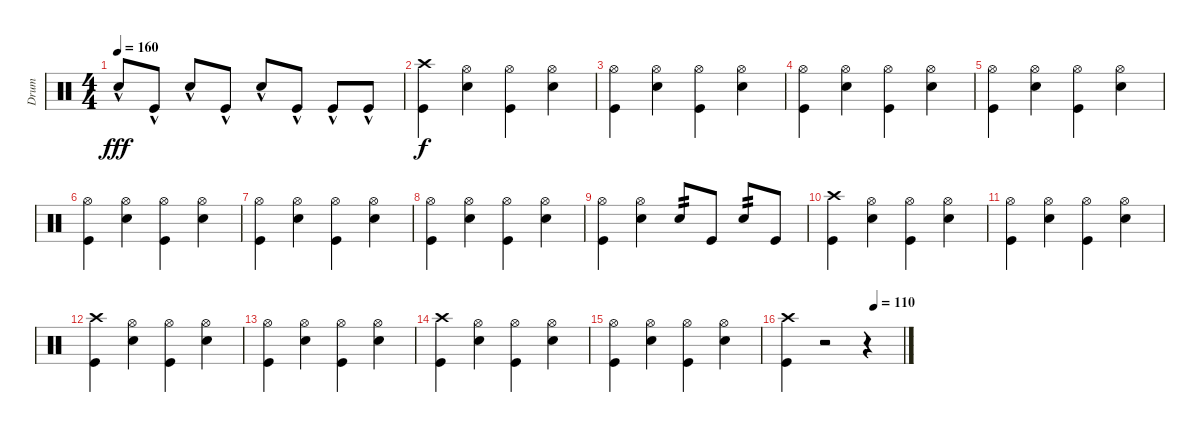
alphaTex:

\track ("Drum" "Drum") {instrument percussion}
\staff {score}
\articulation defaults
\ts (4 4)
\tempo 160
\clef neutral
\ks c "Snare (hit) 2"{hac}.8{dy fff} "Kick (hit)"{hac}.8 "Snare (hit) 2"{hac}.8 "Kick (hit)"{hac}.8 "Snare (hit) 2"{hac}.8 "Kick (hit)"{hac}.8 "Kick (hit)"{hac}.8 "Kick (hit)"{hac}.8
|
("Crash high (hit)" "Kick (hit)").4{dy f} ("Hi-Hat (open)" "Snare (hit) 2").4 ("Hi-Hat (open)" "Kick (hit)").4 ("Hi-Hat (open)" "Snare (hit) 2").4 |
("Hi-Hat (open)" "Kick (hit)").4 ("Hi-Hat (open)" "Snare (hit) 2").4 ("Hi-Hat (open)" "Kick (hit)").4 ("Hi-Hat (open)" "Snare (hit) 2").4 |
("Hi-Hat (open)" "Kick (hit)").4 ("Hi-Hat (open)" "Snare (hit) 2").4 ("Hi-Hat (open)" "Kick (hit)").4 ("Hi-Hat (open)" "Snare (hit) 2").4 |
("Hi-Hat (open)" "Kick (hit)").4 ("Hi-Hat (open)" "Snare (hit) 2").4 ("Hi-Hat (open)" "Kick (hit)").4 ("Hi-Hat (open)" "Snare (hit) 2").4 |
("Hi-Hat (open)" "Kick (hit)").4 ("Hi-Hat (open)" "Snare (hit) 2").4 ("Hi-Hat (open)" "Kick (hit)").4 ("Hi-Hat (open)" "Snare (hit) 2").4 |
("Hi-Hat (open)" "Kick (hit)").4 ("Hi-Hat (open)" "Snare (hit) 2").4 ("Hi-Hat (open)" "Kick (hit)").4 ("Hi-Hat (open)" "Snare (hit) 2").4 |
("Hi-Hat (open)" "Kick (hit)").4 ("Hi-Hat (open)" "Snare (hit) 2").4 ("Hi-Hat (open)" "Kick (hit)").4 ("Hi-Hat (open)" "Snare (hit) 2").4 |
("Hi-Hat (open)" "Kick (hit)").4 ("Hi-Hat (open)" "Snare (hit) 2").4 "Snare (hit) 2".8{tp 2} "Kick (hit)".8 "Snare (hit) 2".8{tp 2} "Kick (hit)".8 |
("Crash high (hit)" "Kick (hit)").4 ("Hi-Hat (open)" "Snare (hit) 2").4 ("Hi-Hat (open)" "Kick (hit)").4 ("Hi-Hat (open)" "Snare (hit) 2").4 |
("Hi-Hat (open)" "Kick (hit)").4 ("Hi-Hat (open)" "Snare (hit) 2").4 ("Hi-Hat (open)" "Kick (hit)").4 ("Hi-Hat (open)" "Snare (hit) 2").4 |
("Crash high (hit)" "Kick (hit)").4 ("Hi-Hat (open)" "Snare (hit) 2").4 ("Hi-Hat (open)" "Kick (hit)").4 ("Hi-Hat (open)" "Snare (hit) 2").4 |
("Hi-Hat (open)" "Kick (hit)").4 ("Hi-Hat (open)" "Snare (hit) 2").4 ("Hi-Hat (open)" "Kick (hit)").4 ("Hi-Hat (open)" "Snare (hit) 2").4 |
("Crash high (hit)" "Kick (hit)").4 ("Hi-Hat (open)" "Snare (hit) 2").4 ("Hi-Hat (open)" "Kick (hit)").4 ("Hi-Hat (open)" "Snare (hit) 2").4 |
("Hi-Hat (open)" "Kick (hit)").4 ("Hi-Hat (open)" "Snare (hit) 2").4 ("Hi-Hat (open)" "Kick (hit)").4 ("Hi-Hat (open)" "Snare (hit) 2").4 |
\tempo (110 0.75)
("Crash high (hit)" "Kick (hit)").4 r.2 r.4
